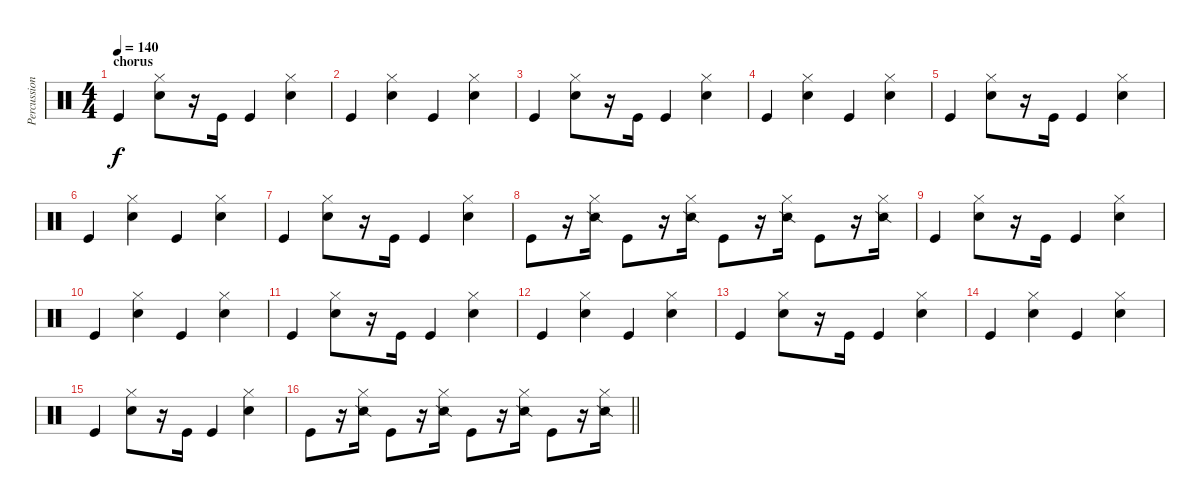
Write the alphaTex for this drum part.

\track ("Percussions" "Percussion") {instrument percussion}
\staff {score}
\articulation defaults
\ts (4 4)
\section ("" "chorus")
\tempo 140
\clef neutral
\ks c "Kick (hit)".4{dy f}
("Hi-Hat (closed)" "Electric Snare (hit)").8 r.16 "Kick (hit)".16 "Kick (hit)".4 ("Hi-Hat (closed)" "Electric Snare (hit)").4 |
"Kick (hit)".4 ("Hi-Hat (closed)" "Electric Snare (hit)").4 "Kick (hit)".4 ("Hi-Hat (closed)" "Electric Snare (hit)").4 |
"Kick (hit)".4 ("Hi-Hat (closed)" "Electric Snare (hit)").8 r.16 "Kick (hit)".16 "Kick (hit)".4 ("Hi-Hat (closed)" "Electric Snare (hit)").4 |
"Kick (hit)".4 ("Hi-Hat (closed)" "Electric Snare (hit)").4 "Kick (hit)".4 ("Hi-Hat (closed)" "Electric Snare (hit)").4 |
"Kick (hit)".4 ("Hi-Hat (closed)" "Electric Snare (hit)").8 r.16 "Kick (hit)".16 "Kick (hit)".4 ("Hi-Hat (closed)" "Electric Snare (hit)").4 |
"Kick (hit)".4 ("Hi-Hat (closed)" "Electric Snare (hit)").4 "Kick (hit)".4 ("Hi-Hat (closed)" "Electric Snare (hit)").4 |
"Kick (hit)".4 ("Hi-Hat (closed)" "Electric Snare (hit)").8 r.16 "Kick (hit)".16 "Kick (hit)".4 ("Hi-Hat (closed)" "Electric Snare (hit)").4 |
"Kick (hit)".8 r.16 ("Hi-Hat (closed)" "Snare (side stick) 2").16 "Kick (hit)".8 r.16 ("Hi-Hat (closed)" "Snare (side stick) 2").16 "Kick (hit)".8 r.16 ("Hi-Hat (closed)" "Snare (side stick) 2").16 "Kick (hit)".8 r.16 ("Hi-Hat (closed)" "Snare (side stick) 2").16 |
"Kick (hit)".4 ("Hi-Hat (closed)" "Electric Snare (hit)").8 r.16 "Kick (hit)".16 "Kick (hit)".4 ("Hi-Hat (closed)" "Electric Snare (hit)").4 |
"Kick (hit)".4 ("Hi-Hat (closed)" "Electric Snare (hit)").4 "Kick (hit)".4 ("Hi-Hat (closed)" "Electric Snare (hit)").4 |
"Kick (hit)".4 ("Hi-Hat (closed)" "Electric Snare (hit)").8 r.16 "Kick (hit)".16 "Kick (hit)".4 ("Hi-Hat (closed)" "Electric Snare (hit)").4 |
"Kick (hit)".4 ("Hi-Hat (closed)" "Electric Snare (hit)").4 "Kick (hit)".4 ("Hi-Hat (closed)" "Electric Snare (hit)").4 |
"Kick (hit)".4 ("Hi-Hat (closed)" "Electric Snare (hit)").8 r.16 "Kick (hit)".16 "Kick (hit)".4 ("Hi-Hat (closed)" "Electric Snare (hit)").4 |
"Kick (hit)".4 ("Hi-Hat (closed)" "Electric Snare (hit)").4 "Kick (hit)".4 ("Hi-Hat (closed)" "Electric Snare (hit)").4 |
"Kick (hit)".4 ("Hi-Hat (closed)" "Electric Snare (hit)").8 r.16 "Kick (hit)".16 "Kick (hit)".4 ("Hi-Hat (closed)" "Electric Snare (hit)").4 |
\barLineRight lightlight "Kick (hit)".8
r.16 ("Hi-Hat (closed)" "Snare (side stick) 2").16 "Kick (hit)".8 r.16 ("Hi-Hat (closed)" "Snare (side stick) 2").16 "Kick (hit)".8 r.16 ("Hi-Hat (closed)" "Snare (side stick) 2").16 "Kick (hit)".8 r.16 ("Hi-Hat (closed)" "Snare (side stick) 2").16
